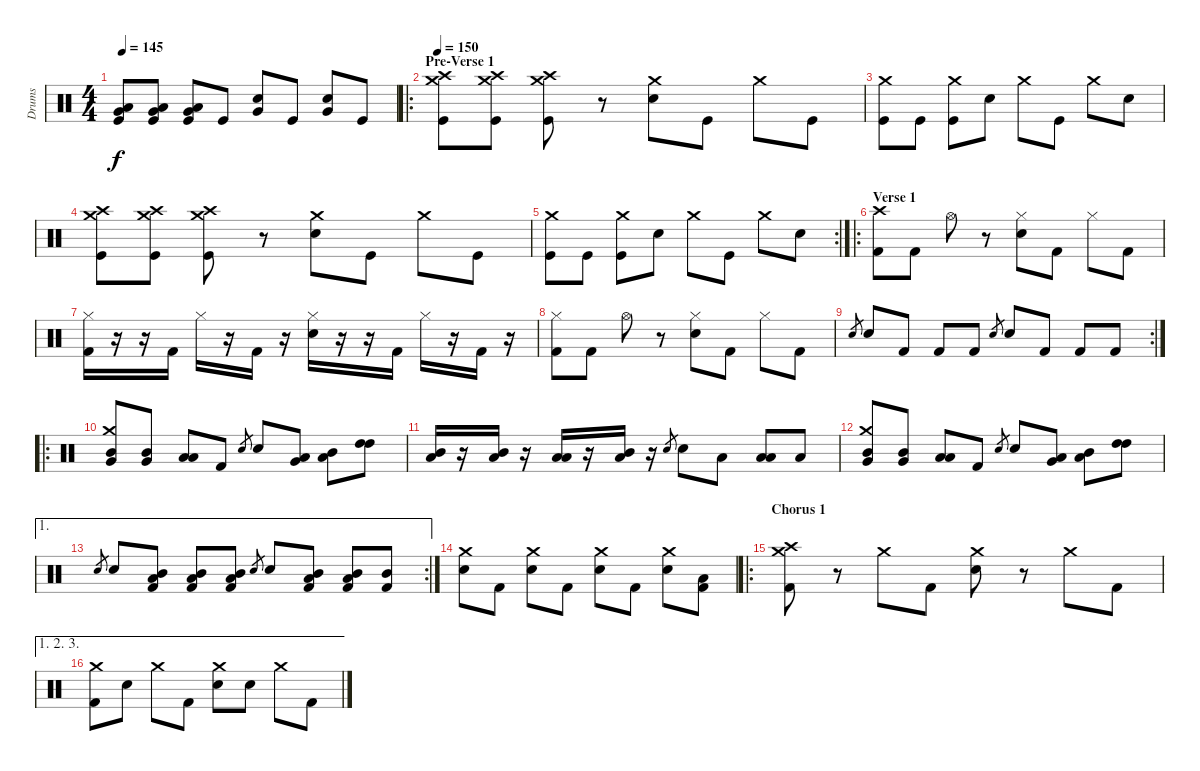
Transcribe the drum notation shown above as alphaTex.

\track ("Drums" "Drums") {instrument percussion}
\staff {score}
\articulation defaults
\ts (4 4)
\tempo 145
\clef neutral
\ks c
("Low Floor Tom (hit)" "Very Low Tom (hit)" "Kick (hit)").8{dy f} ("Low Floor Tom (hit)" "Very Low Tom (hit)" "Kick (hit)").8 ("Low Floor Tom (hit)" "Very Low Tom (hit)" "Kick (hit)").8 "Kick (hit)".8 ("Electric Snare (hit)" "Very Low Tom (hit)").8 "Kick (hit)".8 ("Electric Snare (hit)" "Very Low Tom (hit)").8 "Kick (hit)".8 |
\ro
\section ("" "Pre-Verse 1")
\tempo 150
("Crash medium (hit)" "Crash high (hit)" "Kick (hit)").8 ("Crash medium (hit)" "Crash high (hit)" "Kick (hit)").8 ("Crash medium (hit)" "Crash high (hit)" "Kick (hit)").8 r.8 ("Crash medium (hit)" "Electric Snare (hit)").8 "Kick (hit)".8 "Crash medium (hit)".8 "Kick (hit)".8 |
("Crash medium (hit)" "Kick (hit)").8 "Kick (hit)".8 ("Crash medium (hit)" "Kick (hit)").8 "Electric Snare (hit)".8 "Crash medium (hit)".8 "Kick (hit)".8 "Crash medium (hit)".8 "Electric Snare (hit)".8 |
("Crash medium (hit)" "Crash high (hit)" "Kick (hit)").8 ("Crash medium (hit)" "Crash high (hit)" "Kick (hit)").8 ("Crash medium (hit)" "Crash high (hit)" "Kick (hit)").8 r.8 ("Crash medium (hit)" "Electric Snare (hit)").8 "Kick (hit)".8 "Crash medium (hit)".8 "Kick (hit)".8 |
\rc 2
("Crash medium (hit)" "Kick (hit)").8 "Kick (hit)".8 ("Crash medium (hit)" "Kick (hit)").8 "Electric Snare (hit)".8 "Crash medium (hit)".8 "Kick (hit)".8 "Crash medium (hit)".8 "Electric Snare (hit)".8 |
\ro
\section ("" "Verse 1")
("Crash high (hit)" "Kick (hit) 2").8 "Kick (hit) 2".8 "Hi-Hat (open)".8 r.8 ("Hi-Hat (closed)" "Electric Snare (hit)").8 "Kick (hit) 2".8 "Hi-Hat (closed)".8 "Kick (hit) 2".8 |
("Hi-Hat (closed)" "Kick (hit) 2").16 r.16 r.16 "Kick (hit) 2".16 "Hi-Hat (closed)".16 r.16 "Kick (hit) 2".16 r.16 ("Hi-Hat (closed)" "Electric Snare (hit)").16 r.16 r.16 "Kick (hit) 2".16 "Hi-Hat (closed)".16 r.16 "Kick (hit) 2".16 r.16 |
("Hi-Hat (closed)" "Kick (hit) 2").8 "Kick (hit) 2".8 "Hi-Hat (open)".8 r.8 ("Hi-Hat (closed)" "Electric Snare (hit)").8 "Kick (hit) 2".8 "Hi-Hat (closed)".8 "Kick (hit) 2".8 |
\rc 2 "Electric Snare (hit)".8{gr} "Electric Snare (hit)".8 "Kick (hit) 2".8 "Kick (hit) 2".8 "Kick (hit) 2".8 "Electric Snare (hit)".8{gr} "Electric Snare (hit)".8 "Kick (hit) 2".8 "Kick (hit) 2".8 "Kick (hit) 2".8
|
\ro
("Crash medium (hit)" "Mid Tom (hit)" "Very Low Tom (hit)").8 ("Mid Tom (hit)" "Very Low Tom (hit)").8 ("Low Tom (hit)" "Low Tom (hit)").8 "Kick (hit) 2".8 "Electric Snare (hit)".8{gr} "Electric Snare (hit)".8 ("Low Floor Tom (hit)" "Very Low Tom (hit)").8 ("Mid Tom (hit)" "Low Tom (hit)").8 ("High Tom (hit)" "High Tom (hit)").8 |
("Low Floor Tom (hit)" "Mid Tom (hit)").16 r.16 ("Low Floor Tom (hit)" "Mid Tom (hit)").16 r.16 ("Low Floor Tom (hit)" "Low Tom (hit)").16 r.16 ("Low Floor Tom (hit)" "Mid Tom (hit)").16 r.16 "Electric Snare (hit)".8{gr} "Electric Snare (hit)".8 "Low Tom (hit)".8 ("Low Floor Tom (hit)" "Low Tom (hit)").8 "Low Tom (hit)".8 |
("Crash medium (hit)" "Mid Tom (hit)" "Very Low Tom (hit)").8 ("Mid Tom (hit)" "Very Low Tom (hit)").8 ("Low Tom (hit)" "Low Tom (hit)").8 "Kick (hit) 2".8 "Electric Snare (hit)".8{gr} "Electric Snare (hit)".8 ("Low Floor Tom (hit)" "Very Low Tom (hit)").8 ("Mid Tom (hit)" "Low Tom (hit)").8 ("High Tom (hit)" "High Tom (hit)").8 |
\ae 1
\rc 2 "Electric Snare (hit)".8{gr} "Electric Snare (hit)".8
("Kick (hit) 2" "Low Tom (hit)" "Mid Tom (hit)").8 ("Kick (hit) 2" "Low Tom (hit)" "Mid Tom (hit)").8 ("Kick (hit) 2" "Low Tom (hit)" "Mid Tom (hit)").8 "Electric Snare (hit)".8{gr} "Electric Snare (hit)".8 ("Kick (hit) 2" "Low Tom (hit)" "Mid Tom (hit)").8 ("Kick (hit) 2" "Low Tom (hit)" "Mid Tom (hit)").8 ("Kick (hit) 2" "Mid Tom (hit)").8 |
("Crash medium (hit)" "Electric Snare (hit)").8 "Kick (hit) 2".8 ("Crash medium (hit)" "Electric Snare (hit)").8 "Kick (hit) 2".8 ("Crash medium (hit)" "Electric Snare (hit)").8 "Kick (hit) 2".8 ("Crash medium (hit)" "Electric Snare (hit)").8 ("Low Floor Tom (hit)" "Kick (hit) 2").8 |
\ro
\section ("" "Chorus 1")
("Crash medium (hit)" "Crash high (hit)" "Kick (hit) 2").8 r.8 "Crash medium (hit)".8 "Kick (hit) 2".8 ("Crash medium (hit)" "Electric Snare (hit)").8 r.8 "Crash medium (hit)".8 "Kick (hit) 2".8 |
\ae (1 2 3)
("Crash medium (hit)" "Kick (hit) 2").8 "Electric Snare (hit)".8 "Crash medium (hit)".8 "Kick (hit) 2".8 ("Crash medium (hit)" "Electric Snare (hit)").8 "Electric Snare (hit)".8 "Crash medium (hit)".8 "Kick (hit) 2".8
